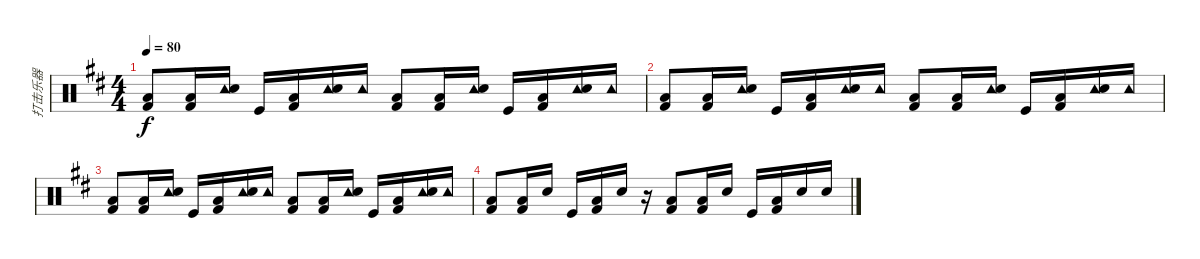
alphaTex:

\track ("打击乐器" "打击乐器") {instrument percussion}
\staff {score}
\articulation defaults
\ts (4 4)
\tempo 80
\clef neutral
\ks bminor
("Kick (hit) 2" "Low Floor Tom (hit)").8{dy f} ("Kick (hit) 2" "Low Floor Tom (hit)").16 ("Tambourine (hit)" "Electric Snare (hit)").16 "Kick (hit)".16 ("Kick (hit) 2" "Low Floor Tom (hit)").16 ("Tambourine (hit)" "Electric Snare (hit)").16 "Tambourine (hit)".16 ("Kick (hit) 2" "Low Floor Tom (hit)").8 ("Kick (hit) 2" "Low Floor Tom (hit)").16 ("Tambourine (hit)" "Electric Snare (hit)").16 "Kick (hit)".16 ("Kick (hit) 2" "Low Floor Tom (hit)").16 ("Tambourine (hit)" "Electric Snare (hit)").16 "Tambourine (hit)".16 |
("Kick (hit) 2" "Low Floor Tom (hit)").8 ("Kick (hit) 2" "Low Floor Tom (hit)").16 ("Tambourine (hit)" "Electric Snare (hit)").16 "Kick (hit)".16 ("Kick (hit) 2" "Low Floor Tom (hit)").16 ("Tambourine (hit)" "Electric Snare (hit)").16 "Tambourine (hit)".16 ("Kick (hit) 2" "Low Floor Tom (hit)").8 ("Kick (hit) 2" "Low Floor Tom (hit)").16 ("Tambourine (hit)" "Electric Snare (hit)").16 "Kick (hit)".16 ("Kick (hit) 2" "Low Floor Tom (hit)").16 ("Tambourine (hit)" "Electric Snare (hit)").16 "Tambourine (hit)".16 |
("Kick (hit) 2" "Low Floor Tom (hit)").8 ("Kick (hit) 2" "Low Floor Tom (hit)").16 ("Tambourine (hit)" "Electric Snare (hit)").16 "Kick (hit)".16 ("Kick (hit) 2" "Low Floor Tom (hit)").16 ("Tambourine (hit)" "Electric Snare (hit)").16 "Tambourine (hit)".16 ("Kick (hit) 2" "Low Floor Tom (hit)").8 ("Kick (hit) 2" "Low Floor Tom (hit)").16 ("Tambourine (hit)" "Electric Snare (hit)").16 "Kick (hit)".16 ("Kick (hit) 2" "Low Floor Tom (hit)").16 ("Tambourine (hit)" "Electric Snare (hit)").16 "Tambourine (hit)".16 |
("Kick (hit) 2" "Low Floor Tom (hit)").8 ("Kick (hit) 2" "Low Floor Tom (hit)").16 "Electric Snare (hit)".16 "Kick (hit)".16 ("Kick (hit) 2" "Low Floor Tom (hit)").16 "Electric Snare (hit)".16 r.16 ("Kick (hit) 2" "Low Floor Tom (hit)").8 ("Kick (hit) 2" "Low Floor Tom (hit)").16 "Electric Snare (hit)".16 "Kick (hit)".16 ("Kick (hit) 2" "Low Floor Tom (hit)").16 "Electric Snare (hit)".16 "Electric Snare (hit)".16
